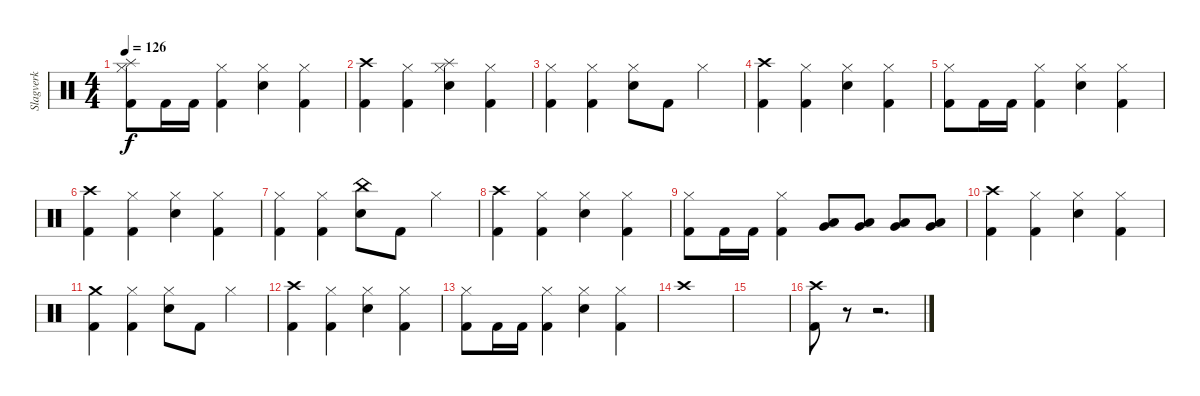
\track ("Slagverk" "Slagverk") {instrument percussion}
\staff {score}
\articulation defaults
\ts (4 4)
\tempo 126
\clef neutral
\ks c
("Kick (hit) 2" "Hi-Hat (closed)" "Splash (hit)").8{dy f} "Kick (hit) 2".16 "Kick (hit) 2".16 ("Kick (hit) 2" "Hi-Hat (closed)").4 ("Electric Snare (hit)" "Hi-Hat (closed)").4 ("Hi-Hat (closed)" "Kick (hit) 2").4 |
("Crash high (hit)" "Kick (hit) 2").4 ("Kick (hit) 2" "Hi-Hat (closed)").4 ("Electric Snare (hit)" "Hi-Hat (closed)" "Splash (hit)").4 ("Hi-Hat (closed)" "Kick (hit) 2").4 |
("Kick (hit) 2" "Hi-Hat (closed)").4 ("Kick (hit) 2" "Hi-Hat (closed)").4 ("Electric Snare (hit)" "Hi-Hat (closed)").8 "Kick (hit) 2".8 "Hi-Hat (closed)".4 |
("Crash high (hit)" "Kick (hit) 2").4 ("Kick (hit) 2" "Hi-Hat (closed)").4 ("Electric Snare (hit)" "Hi-Hat (closed)").4 ("Hi-Hat (closed)" "Kick (hit) 2").4 |
("Kick (hit) 2" "Hi-Hat (closed)").8 "Kick (hit) 2".16 "Kick (hit) 2".16 ("Kick (hit) 2" "Hi-Hat (closed)").4 ("Electric Snare (hit)" "Hi-Hat (closed)").4 ("Hi-Hat (closed)" "Kick (hit) 2").4 |
("Crash high (hit)" "Kick (hit) 2").4 ("Kick (hit) 2" "Hi-Hat (closed)").4 ("Electric Snare (hit)" "Hi-Hat (closed)").4 ("Hi-Hat (closed)" "Kick (hit) 2").4 |
("Kick (hit) 2" "Hi-Hat (closed)").4 ("Kick (hit) 2" "Hi-Hat (closed)").4 ("Electric Snare (hit)" "China (hit)").8 "Kick (hit) 2".8 "Hi-Hat (closed)".4 |
("Crash high (hit)" "Kick (hit) 2").4 ("Kick (hit) 2" "Hi-Hat (closed)").4 ("Electric Snare (hit)" "Hi-Hat (closed)").4 ("Hi-Hat (closed)" "Kick (hit) 2").4 |
("Kick (hit) 2" "Hi-Hat (closed)").8 "Kick (hit) 2".16 "Kick (hit) 2".16 ("Kick (hit) 2" "Hi-Hat (closed)").4 ("Low Floor Tom (hit)" "Very Low Tom (hit)").8 ("Low Floor Tom (hit)" "Very Low Tom (hit)").8 ("Very Low Tom (hit)" "Low Tom (hit)").8 ("Very Low Tom (hit)" "Low Tom (hit)").8 |
("Crash high (hit)" "Kick (hit) 2").4 ("Kick (hit) 2" "Hi-Hat (closed)").4 ("Electric Snare (hit)" "Hi-Hat (closed)").4 ("Hi-Hat (closed)" "Kick (hit) 2").4 |
("Kick (hit) 2" "Crash medium (hit)").4 ("Kick (hit) 2" "Hi-Hat (closed)").4 ("Electric Snare (hit)" "Hi-Hat (closed)").8 "Kick (hit) 2".8 "Hi-Hat (closed)".4 |
("Crash high (hit)" "Kick (hit) 2").4 ("Kick (hit) 2" "Hi-Hat (closed)").4 ("Electric Snare (hit)" "Hi-Hat (closed)").4 ("Hi-Hat (closed)" "Kick (hit) 2").4 |
("Kick (hit) 2" "Hi-Hat (closed)").8 "Kick (hit) 2".16 "Kick (hit) 2".16 ("Kick (hit) 2" "Hi-Hat (closed)").4 ("Electric Snare (hit)" "Hi-Hat (closed)").4 ("Hi-Hat (closed)" "Kick (hit) 2").4 |
"Crash high (hit)".1 |
|
("Crash high (hit)" "Kick (hit) 2").8 r.8 r.2{d}
